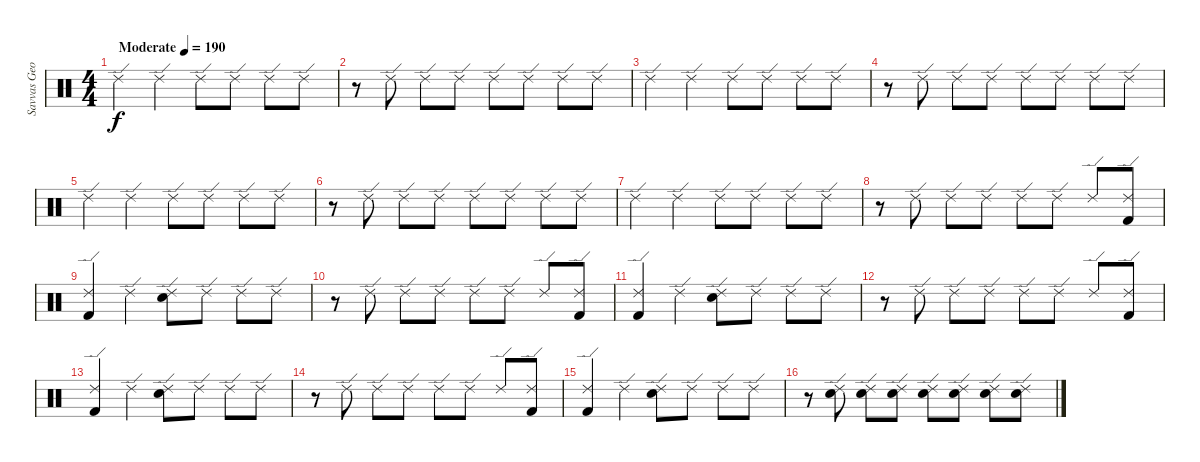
\track ("Savvas Georgiadis" "Savvas Geo") {instrument percussion}
\staff {score}
\articulation defaults
\ts (4 4)
\tempo (190 "Moderate")
\clef neutral
\ks c "Ride (edge) 2".4{dy f} "Ride (edge) 2".4 "Ride (edge) 2".8 "Ride (edge) 2".8 "Ride (edge) 2".8 "Ride (edge) 2".8
|
r.8 "Ride (edge) 2".8 "Ride (edge) 2".8 "Ride (edge) 2".8 "Ride (edge) 2".8 "Ride (edge) 2".8 "Ride (edge) 2".8 "Ride (edge) 2".8 |
"Ride (edge) 2".4 "Ride (edge) 2".4 "Ride (edge) 2".8 "Ride (edge) 2".8 "Ride (edge) 2".8 "Ride (edge) 2".8 |
r.8 "Ride (edge) 2".8 "Ride (edge) 2".8 "Ride (edge) 2".8 "Ride (edge) 2".8 "Ride (edge) 2".8 "Ride (edge) 2".8 "Ride (edge) 2".8 |
"Ride (edge) 2".4 "Ride (edge) 2".4 "Ride (edge) 2".8 "Ride (edge) 2".8 "Ride (edge) 2".8 "Ride (edge) 2".8 |
r.8 "Ride (edge) 2".8 "Ride (edge) 2".8 "Ride (edge) 2".8 "Ride (edge) 2".8 "Ride (edge) 2".8 "Ride (edge) 2".8 "Ride (edge) 2".8 |
"Ride (edge) 2".4 "Ride (edge) 2".4 "Ride (edge) 2".8 "Ride (edge) 2".8 "Ride (edge) 2".8 "Ride (edge) 2".8 |
r.8 "Ride (edge) 2".8 "Ride (edge) 2".8 "Ride (edge) 2".8 "Ride (edge) 2".8 "Ride (edge) 2".8 "Ride (edge) 2".8 ("Ride (edge) 2" "Kick (hit) 2").8 |
("Ride (edge) 2" "Kick (hit) 2").4 "Ride (edge) 2".4 ("Ride (edge) 2" "Electric Snare (hit)").8 "Ride (edge) 2".8 "Ride (edge) 2".8 "Ride (edge) 2".8 |
r.8 "Ride (edge) 2".8 "Ride (edge) 2".8 "Ride (edge) 2".8 "Ride (edge) 2".8 "Ride (edge) 2".8 "Ride (edge) 2".8 ("Ride (edge) 2" "Kick (hit) 2").8 |
("Ride (edge) 2" "Kick (hit) 2").4 "Ride (edge) 2".4 ("Ride (edge) 2" "Electric Snare (hit)").8 "Ride (edge) 2".8 "Ride (edge) 2".8 "Ride (edge) 2".8 |
r.8 "Ride (edge) 2".8 "Ride (edge) 2".8 "Ride (edge) 2".8 "Ride (edge) 2".8 "Ride (edge) 2".8 "Ride (edge) 2".8 ("Ride (edge) 2" "Kick (hit) 2").8 |
("Ride (edge) 2" "Kick (hit) 2").4 "Ride (edge) 2".4 ("Ride (edge) 2" "Electric Snare (hit)").8 "Ride (edge) 2".8 "Ride (edge) 2".8 "Ride (edge) 2".8 |
r.8 "Ride (edge) 2".8 "Ride (edge) 2".8 "Ride (edge) 2".8 "Ride (edge) 2".8 "Ride (edge) 2".8 "Ride (edge) 2".8 ("Ride (edge) 2" "Kick (hit) 2").8 |
("Ride (edge) 2" "Kick (hit) 2").4 "Ride (edge) 2".4 ("Ride (edge) 2" "Electric Snare (hit)").8 "Ride (edge) 2".8 "Ride (edge) 2".8 "Ride (edge) 2".8 |
r.8 ("Ride (edge) 2" "Electric Snare (hit)").8 ("Ride (edge) 2" "Electric Snare (hit)").8 ("Ride (edge) 2" "Electric Snare (hit)").8 ("Ride (edge) 2" "Electric Snare (hit)").8 ("Ride (edge) 2" "Electric Snare (hit)").8 ("Ride (edge) 2" "Electric Snare (hit)").8 ("Ride (edge) 2" "Electric Snare (hit)").8
